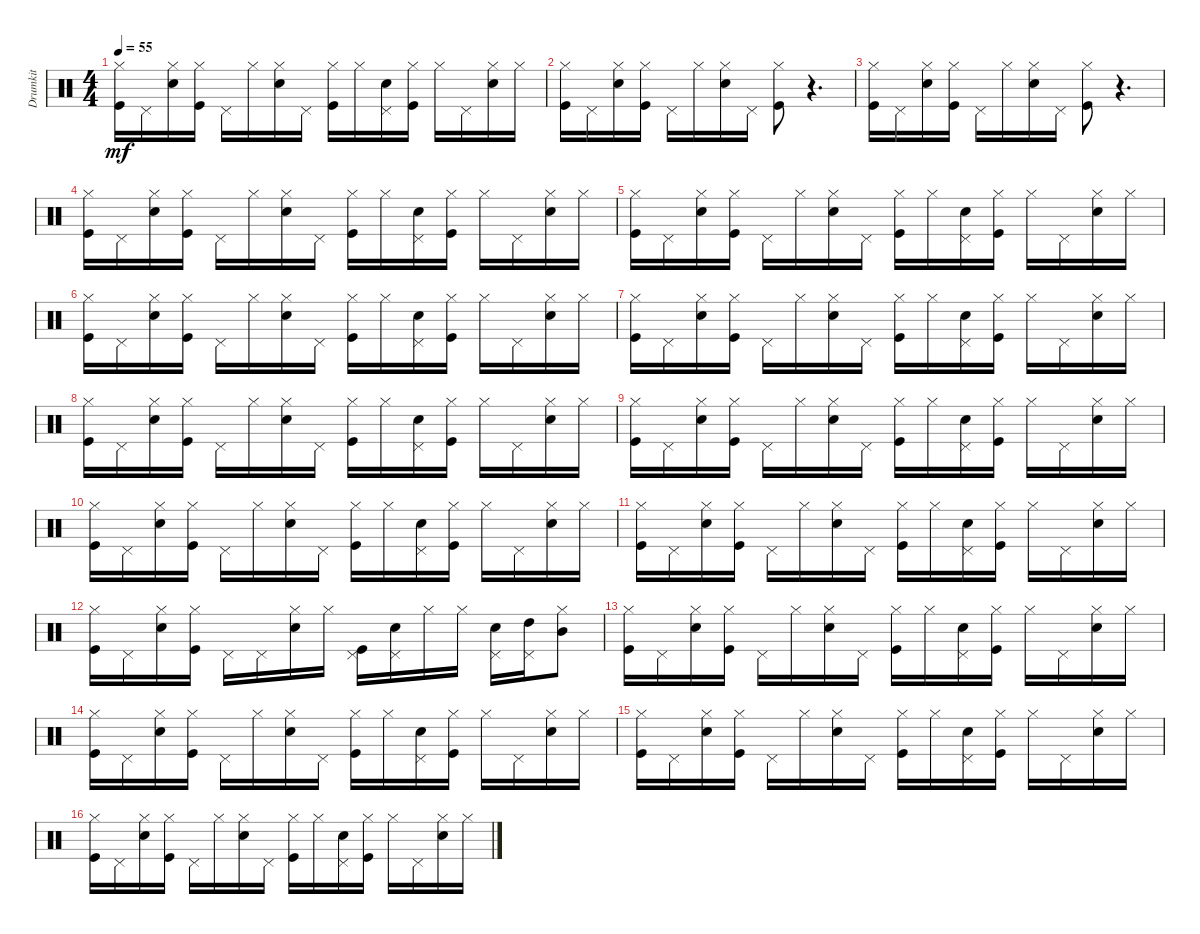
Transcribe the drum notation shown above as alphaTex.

\track ("Drumkit" "Drumkit") {instrument percussion}
\staff {score}
\articulation defaults
\ts (4 4)
\tempo 55
\clef neutral
\ks c
("Kick (hit)" "Hi-Hat (closed)").16{dy mf} "Pedal Hi-Hat (hit)".16 ("Hi-Hat (closed)" "Snare (hit) 2").16 ("Kick (hit)" "Hi-Hat (closed)").16 "Pedal Hi-Hat (hit)".16 "Hi-Hat (closed)".16 ("Snare (hit) 2" "Hi-Hat (closed)").16 "Pedal Hi-Hat (hit)".16 ("Kick (hit)" "Hi-Hat (closed)").16 "Hi-Hat (closed)".16 ("Snare (hit) 2" "Pedal Hi-Hat (hit)").16 ("Kick (hit)" "Hi-Hat (closed)").16 "Hi-Hat (closed)".16 "Pedal Hi-Hat (hit)".16 ("Snare (hit) 2" "Hi-Hat (closed)").16 "Hi-Hat (closed)".16 |
("Kick (hit)" "Hi-Hat (closed)").16 "Pedal Hi-Hat (hit)".16 ("Hi-Hat (closed)" "Snare (hit) 2").16 ("Kick (hit)" "Hi-Hat (closed)").16 "Pedal Hi-Hat (hit)".16 "Hi-Hat (closed)".16 ("Snare (hit) 2" "Hi-Hat (closed)").16 "Pedal Hi-Hat (hit)".16 ("Kick (hit)" "Hi-Hat (closed)").8 r.4{d} |
("Kick (hit)" "Hi-Hat (closed)").16 "Pedal Hi-Hat (hit)".16 ("Hi-Hat (closed)" "Snare (hit) 2").16 ("Kick (hit)" "Hi-Hat (closed)").16 "Pedal Hi-Hat (hit)".16 "Hi-Hat (closed)".16 ("Snare (hit) 2" "Hi-Hat (closed)").16 "Pedal Hi-Hat (hit)".16 ("Kick (hit)" "Hi-Hat (closed)").8 r.4{d} |
("Kick (hit)" "Hi-Hat (closed)").16 "Pedal Hi-Hat (hit)".16 ("Hi-Hat (closed)" "Snare (hit) 2").16 ("Kick (hit)" "Hi-Hat (closed)").16 "Pedal Hi-Hat (hit)".16 "Hi-Hat (closed)".16 ("Snare (hit) 2" "Hi-Hat (closed)").16 "Pedal Hi-Hat (hit)".16 ("Kick (hit)" "Hi-Hat (closed)").16 "Hi-Hat (closed)".16 ("Snare (hit) 2" "Pedal Hi-Hat (hit)").16 ("Kick (hit)" "Hi-Hat (closed)").16 "Hi-Hat (closed)".16 "Pedal Hi-Hat (hit)".16 ("Snare (hit) 2" "Hi-Hat (closed)").16 "Hi-Hat (closed)".16 |
("Kick (hit)" "Hi-Hat (closed)").16 "Pedal Hi-Hat (hit)".16 ("Hi-Hat (closed)" "Snare (hit) 2").16 ("Kick (hit)" "Hi-Hat (closed)").16 "Pedal Hi-Hat (hit)".16 "Hi-Hat (closed)".16 ("Snare (hit) 2" "Hi-Hat (closed)").16 "Pedal Hi-Hat (hit)".16 ("Kick (hit)" "Hi-Hat (closed)").16 "Hi-Hat (closed)".16 ("Snare (hit) 2" "Pedal Hi-Hat (hit)").16 ("Kick (hit)" "Hi-Hat (closed)").16 "Hi-Hat (closed)".16 "Pedal Hi-Hat (hit)".16 ("Snare (hit) 2" "Hi-Hat (closed)").16 "Hi-Hat (closed)".16 |
("Kick (hit)" "Hi-Hat (closed)").16 "Pedal Hi-Hat (hit)".16 ("Hi-Hat (closed)" "Snare (hit) 2").16 ("Kick (hit)" "Hi-Hat (closed)").16 "Pedal Hi-Hat (hit)".16 "Hi-Hat (closed)".16 ("Snare (hit) 2" "Hi-Hat (closed)").16 "Pedal Hi-Hat (hit)".16 ("Kick (hit)" "Hi-Hat (closed)").16 "Hi-Hat (closed)".16 ("Snare (hit) 2" "Pedal Hi-Hat (hit)").16 ("Kick (hit)" "Hi-Hat (closed)").16 "Hi-Hat (closed)".16 "Pedal Hi-Hat (hit)".16 ("Snare (hit) 2" "Hi-Hat (closed)").16 "Hi-Hat (closed)".16 |
("Kick (hit)" "Hi-Hat (closed)").16 "Pedal Hi-Hat (hit)".16 ("Hi-Hat (closed)" "Snare (hit) 2").16 ("Kick (hit)" "Hi-Hat (closed)").16 "Pedal Hi-Hat (hit)".16 "Hi-Hat (closed)".16 ("Snare (hit) 2" "Hi-Hat (closed)").16 "Pedal Hi-Hat (hit)".16 ("Kick (hit)" "Hi-Hat (closed)").16 "Hi-Hat (closed)".16 ("Snare (hit) 2" "Pedal Hi-Hat (hit)").16 ("Kick (hit)" "Hi-Hat (closed)").16 "Hi-Hat (closed)".16 "Pedal Hi-Hat (hit)".16 ("Snare (hit) 2" "Hi-Hat (closed)").16 "Hi-Hat (closed)".16 |
("Kick (hit)" "Hi-Hat (closed)").16 "Pedal Hi-Hat (hit)".16 ("Hi-Hat (closed)" "Snare (hit) 2").16 ("Kick (hit)" "Hi-Hat (closed)").16 "Pedal Hi-Hat (hit)".16 "Hi-Hat (closed)".16 ("Snare (hit) 2" "Hi-Hat (closed)").16 "Pedal Hi-Hat (hit)".16 ("Kick (hit)" "Hi-Hat (closed)").16 "Hi-Hat (closed)".16 ("Snare (hit) 2" "Pedal Hi-Hat (hit)").16 ("Kick (hit)" "Hi-Hat (closed)").16 "Hi-Hat (closed)".16 "Pedal Hi-Hat (hit)".16 ("Snare (hit) 2" "Hi-Hat (closed)").16 "Hi-Hat (closed)".16 |
("Kick (hit)" "Hi-Hat (closed)").16 "Pedal Hi-Hat (hit)".16 ("Hi-Hat (closed)" "Snare (hit) 2").16 ("Kick (hit)" "Hi-Hat (closed)").16 "Pedal Hi-Hat (hit)".16 "Hi-Hat (closed)".16 ("Snare (hit) 2" "Hi-Hat (closed)").16 "Pedal Hi-Hat (hit)".16 ("Kick (hit)" "Hi-Hat (closed)").16 "Hi-Hat (closed)".16 ("Snare (hit) 2" "Pedal Hi-Hat (hit)").16 ("Kick (hit)" "Hi-Hat (closed)").16 "Hi-Hat (closed)".16 "Pedal Hi-Hat (hit)".16 ("Snare (hit) 2" "Hi-Hat (closed)").16 "Hi-Hat (closed)".16 |
("Kick (hit)" "Hi-Hat (closed)").16 "Pedal Hi-Hat (hit)".16 ("Hi-Hat (closed)" "Snare (hit) 2").16 ("Kick (hit)" "Hi-Hat (closed)").16 "Pedal Hi-Hat (hit)".16 "Hi-Hat (closed)".16 ("Snare (hit) 2" "Hi-Hat (closed)").16 "Pedal Hi-Hat (hit)".16 ("Kick (hit)" "Hi-Hat (closed)").16 "Hi-Hat (closed)".16 ("Snare (hit) 2" "Pedal Hi-Hat (hit)").16 ("Kick (hit)" "Hi-Hat (closed)").16 "Hi-Hat (closed)".16 "Pedal Hi-Hat (hit)".16 ("Snare (hit) 2" "Hi-Hat (closed)").16 "Hi-Hat (closed)".16 |
("Kick (hit)" "Hi-Hat (closed)").16 "Pedal Hi-Hat (hit)".16 ("Hi-Hat (closed)" "Snare (hit) 2").16 ("Kick (hit)" "Hi-Hat (closed)").16 "Pedal Hi-Hat (hit)".16 "Hi-Hat (closed)".16 ("Snare (hit) 2" "Hi-Hat (closed)").16 "Pedal Hi-Hat (hit)".16 ("Kick (hit)" "Hi-Hat (closed)").16 "Hi-Hat (closed)".16 ("Snare (hit) 2" "Pedal Hi-Hat (hit)").16 ("Kick (hit)" "Hi-Hat (closed)").16 "Hi-Hat (closed)".16 "Pedal Hi-Hat (hit)".16 ("Snare (hit) 2" "Hi-Hat (closed)").16 "Hi-Hat (closed)".16 |
("Kick (hit)" "Hi-Hat (closed)").16 "Pedal Hi-Hat (hit)".16 ("Hi-Hat (closed)" "Snare (hit) 2").16 ("Kick (hit)" "Hi-Hat (closed)").16 "Pedal Hi-Hat (hit)".16 "Pedal Hi-Hat (hit)".16 ("Snare (hit) 2" "Hi-Hat (closed)").16 "Hi-Hat (closed)".16 ("Pedal Hi-Hat (hit)" "Kick (hit)").16 ("Pedal Hi-Hat (hit)" "Snare (hit) 2").16 "Hi-Hat (closed)".16 "Hi-Hat (closed)".16 ("Snare (hit) 2" "Pedal Hi-Hat (hit)").16 ("Pedal Hi-Hat (hit)" "High Tom (hit)").16 ("Hi-Hat (closed)" "Mid Tom (hit)").8 |
("Kick (hit)" "Hi-Hat (closed)").16 "Pedal Hi-Hat (hit)".16 ("Hi-Hat (closed)" "Snare (hit) 2").16 ("Kick (hit)" "Hi-Hat (closed)").16 "Pedal Hi-Hat (hit)".16 "Hi-Hat (closed)".16 ("Snare (hit) 2" "Hi-Hat (closed)").16 "Pedal Hi-Hat (hit)".16 ("Kick (hit)" "Hi-Hat (closed)").16 "Hi-Hat (closed)".16 ("Snare (hit) 2" "Pedal Hi-Hat (hit)").16 ("Kick (hit)" "Hi-Hat (closed)").16 "Hi-Hat (closed)".16 "Pedal Hi-Hat (hit)".16 ("Snare (hit) 2" "Hi-Hat (closed)").16 "Hi-Hat (closed)".16 |
("Kick (hit)" "Hi-Hat (closed)").16 "Pedal Hi-Hat (hit)".16 ("Hi-Hat (closed)" "Snare (hit) 2").16 ("Kick (hit)" "Hi-Hat (closed)").16 "Pedal Hi-Hat (hit)".16 "Hi-Hat (closed)".16 ("Snare (hit) 2" "Hi-Hat (closed)").16 "Pedal Hi-Hat (hit)".16 ("Kick (hit)" "Hi-Hat (closed)").16 "Hi-Hat (closed)".16 ("Snare (hit) 2" "Pedal Hi-Hat (hit)").16 ("Kick (hit)" "Hi-Hat (closed)").16 "Hi-Hat (closed)".16 "Pedal Hi-Hat (hit)".16 ("Snare (hit) 2" "Hi-Hat (closed)").16 "Hi-Hat (closed)".16 |
("Kick (hit)" "Hi-Hat (closed)").16 "Pedal Hi-Hat (hit)".16 ("Hi-Hat (closed)" "Snare (hit) 2").16 ("Kick (hit)" "Hi-Hat (closed)").16 "Pedal Hi-Hat (hit)".16 "Hi-Hat (closed)".16 ("Snare (hit) 2" "Hi-Hat (closed)").16 "Pedal Hi-Hat (hit)".16 ("Kick (hit)" "Hi-Hat (closed)").16 "Hi-Hat (closed)".16 ("Snare (hit) 2" "Pedal Hi-Hat (hit)").16 ("Kick (hit)" "Hi-Hat (closed)").16 "Hi-Hat (closed)".16 "Pedal Hi-Hat (hit)".16 ("Snare (hit) 2" "Hi-Hat (closed)").16 "Hi-Hat (closed)".16 |
("Kick (hit)" "Hi-Hat (closed)").16 "Pedal Hi-Hat (hit)".16 ("Hi-Hat (closed)" "Snare (hit) 2").16 ("Kick (hit)" "Hi-Hat (closed)").16 "Pedal Hi-Hat (hit)".16 "Hi-Hat (closed)".16 ("Snare (hit) 2" "Hi-Hat (closed)").16 "Pedal Hi-Hat (hit)".16 ("Kick (hit)" "Hi-Hat (closed)").16 "Hi-Hat (closed)".16 ("Snare (hit) 2" "Pedal Hi-Hat (hit)").16 ("Kick (hit)" "Hi-Hat (closed)").16 "Hi-Hat (closed)".16 "Pedal Hi-Hat (hit)".16 ("Snare (hit) 2" "Hi-Hat (closed)").16 "Hi-Hat (closed)".16
